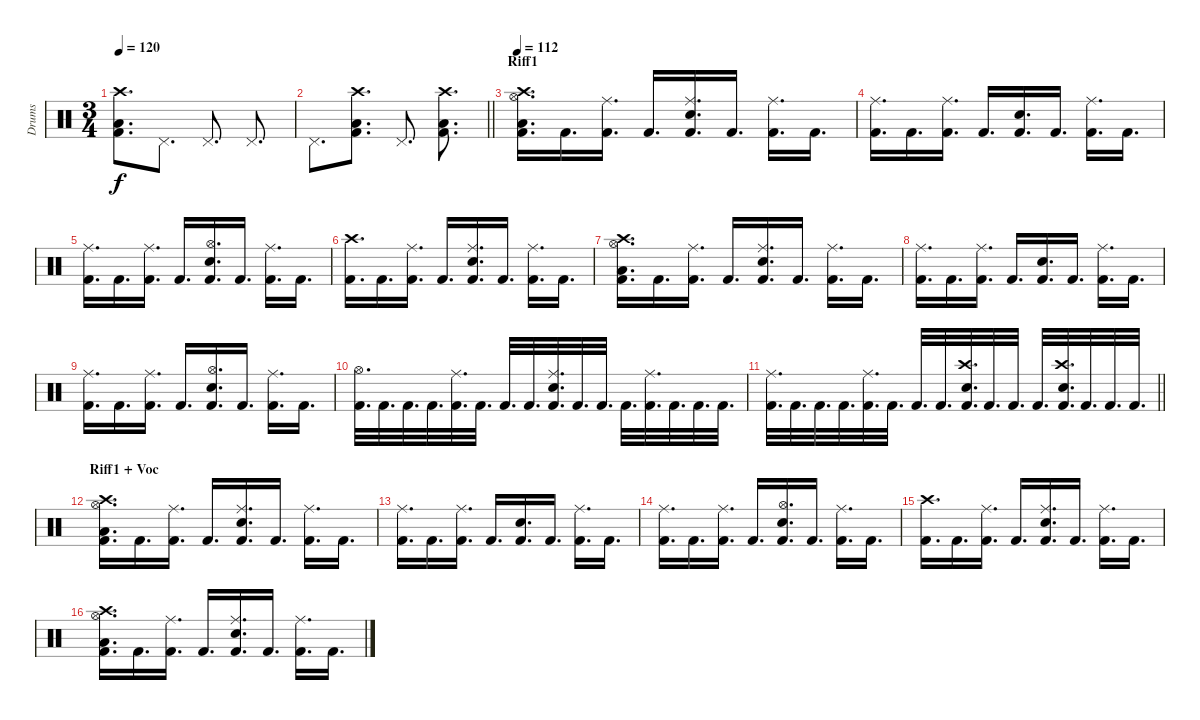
\track ("Drums" "Drums") {instrument percussion}
\staff {score}
\articulation defaults
\ts (3 4)
\tempo 120
\clef neutral
\ks c
("Low Floor Tom (hit)" "Kick (hit) 2" "Crash high (hit)").8{d dy f} "Pedal Hi-Hat (hit)".8{d} "Pedal Hi-Hat (hit)".8{d} "Pedal Hi-Hat (hit)".8{d} |
\barLineRight lightlight "Pedal Hi-Hat (hit)".8{d}
("Low Floor Tom (hit)" "Kick (hit) 2" "Crash high (hit)").8{d} "Pedal Hi-Hat (hit)".8{d} ("Low Floor Tom (hit)" "Kick (hit) 2" "Crash high (hit)").8{d} |
\section ("" "Riff1")
\tempo 112
("Crash high (hit)" "Low Floor Tom (hit)" "Kick (hit) 2" "Hi-Hat (open)").16{d} "Kick (hit) 2".16{d} ("Ride (middle)" "Kick (hit) 2").16{d} "Kick (hit) 2".16{d} ("Ride (middle)" "Kick (hit) 2" "Snare (hit) 2").16{d} "Kick (hit) 2".16{d} ("Ride (middle)" "Kick (hit) 2").16{d} "Kick (hit) 2".16{d} |
("Ride (middle)" "Kick (hit) 2").16{d} "Kick (hit) 2".16{d} ("Ride (middle)" "Kick (hit) 2").16{d} "Kick (hit) 2".16{d} ("Kick (hit) 2" "Snare (hit) 2").16{d} "Kick (hit) 2".16{d} ("Ride (middle)" "Kick (hit) 2").16{d} "Kick (hit) 2".16{d} |
("Ride (middle)" "Kick (hit) 2").16{d} "Kick (hit) 2".16{d} ("Ride (middle)" "Kick (hit) 2").16{d} "Kick (hit) 2".16{d} ("Hi-Hat (open)" "Kick (hit) 2" "Snare (hit) 2").16{d} "Kick (hit) 2".16{d} ("Ride (middle)" "Kick (hit) 2").16{d} "Kick (hit) 2".16{d} |
("Crash high (hit)" "Kick (hit) 2").16{d} "Kick (hit) 2".16{d} ("Ride (middle)" "Kick (hit) 2").16{d} "Kick (hit) 2".16{d} ("Ride (middle)" "Kick (hit) 2" "Snare (hit) 2").16{d} "Kick (hit) 2".16{d} ("Ride (middle)" "Kick (hit) 2").16{d} "Kick (hit) 2".16{d} |
("Crash high (hit)" "Low Floor Tom (hit)" "Kick (hit) 2" "Hi-Hat (open)").16{d} "Kick (hit) 2".16{d} ("Ride (middle)" "Kick (hit) 2").16{d} "Kick (hit) 2".16{d} ("Ride (middle)" "Kick (hit) 2" "Snare (hit) 2").16{d} "Kick (hit) 2".16{d} ("Ride (middle)" "Kick (hit) 2").16{d} "Kick (hit) 2".16{d} |
("Ride (middle)" "Kick (hit) 2").16{d} "Kick (hit) 2".16{d} ("Ride (middle)" "Kick (hit) 2").16{d} "Kick (hit) 2".16{d} ("Kick (hit) 2" "Snare (hit) 2").16{d} "Kick (hit) 2".16{d} ("Ride (middle)" "Kick (hit) 2").16{d} "Kick (hit) 2".16{d} |
("Ride (middle)" "Kick (hit) 2").16{d} "Kick (hit) 2".16{d} ("Ride (middle)" "Kick (hit) 2").16{d} "Kick (hit) 2".16{d} ("Hi-Hat (open)" "Kick (hit) 2" "Snare (hit) 2").16{d} "Kick (hit) 2".16{d} ("Ride (middle)" "Kick (hit) 2").16{d} "Kick (hit) 2".16{d} |
("Hi-Hat (open)" "Kick (hit) 2").32{d} "Kick (hit) 2".32{d} "Kick (hit) 2".32{d} "Kick (hit) 2".32{d} ("Ride (middle)" "Kick (hit) 2").32{d} "Kick (hit) 2".32{d} "Kick (hit) 2".32{d} "Kick (hit) 2".32{d} ("Ride (middle)" "Kick (hit) 2" "Snare (hit) 2").32{d} "Kick (hit) 2".32{d} "Kick (hit) 2".32{d} "Kick (hit) 2".32{d} ("Ride (middle)" "Kick (hit) 2").32{d} "Kick (hit) 2".32{d} "Kick (hit) 2".32{d} "Kick (hit) 2".32{d} |
\barLineRight lightlight
("Ride (middle)" "Kick (hit) 2").32{d} "Kick (hit) 2".32{d} "Kick (hit) 2".32{d} "Kick (hit) 2".32{d} ("Ride (middle)" "Kick (hit) 2").32{d} "Kick (hit) 2".32{d} "Kick (hit) 2".32{d} "Kick (hit) 2".32{d} ("Crash high (hit)" "Kick (hit) 2" "Snare (hit) 2").32{d} "Kick (hit) 2".32{d} "Kick (hit) 2".32{d} "Kick (hit) 2".32{d} ("Crash high (hit)" "Kick (hit) 2" "Snare (hit) 2").32{d} "Kick (hit) 2".32{d} "Kick (hit) 2".32{d} "Kick (hit) 2".32{d} |
\section ("" "Riff1 + Voc")
("Crash high (hit)" "Low Floor Tom (hit)" "Kick (hit) 2" "Hi-Hat (open)").16{d} "Kick (hit) 2".16{d} ("Ride (middle)" "Kick (hit) 2").16{d} "Kick (hit) 2".16{d} ("Ride (middle)" "Kick (hit) 2" "Snare (hit) 2").16{d} "Kick (hit) 2".16{d} ("Ride (middle)" "Kick (hit) 2").16{d} "Kick (hit) 2".16{d} |
("Ride (middle)" "Kick (hit) 2").16{d} "Kick (hit) 2".16{d} ("Ride (middle)" "Kick (hit) 2").16{d} "Kick (hit) 2".16{d} ("Kick (hit) 2" "Snare (hit) 2").16{d} "Kick (hit) 2".16{d} ("Ride (middle)" "Kick (hit) 2").16{d} "Kick (hit) 2".16{d} |
("Ride (middle)" "Kick (hit) 2").16{d} "Kick (hit) 2".16{d} ("Ride (middle)" "Kick (hit) 2").16{d} "Kick (hit) 2".16{d} ("Hi-Hat (open)" "Kick (hit) 2" "Snare (hit) 2").16{d} "Kick (hit) 2".16{d} ("Ride (middle)" "Kick (hit) 2").16{d} "Kick (hit) 2".16{d} |
("Crash high (hit)" "Kick (hit) 2").16{d} "Kick (hit) 2".16{d} ("Ride (middle)" "Kick (hit) 2").16{d} "Kick (hit) 2".16{d} ("Ride (middle)" "Kick (hit) 2" "Snare (hit) 2").16{d} "Kick (hit) 2".16{d} ("Ride (middle)" "Kick (hit) 2").16{d} "Kick (hit) 2".16{d} |
("Crash high (hit)" "Low Floor Tom (hit)" "Kick (hit) 2" "Hi-Hat (open)").16{d} "Kick (hit) 2".16{d} ("Ride (middle)" "Kick (hit) 2").16{d} "Kick (hit) 2".16{d} ("Ride (middle)" "Kick (hit) 2" "Snare (hit) 2").16{d} "Kick (hit) 2".16{d} ("Ride (middle)" "Kick (hit) 2").16{d} "Kick (hit) 2".16{d}
